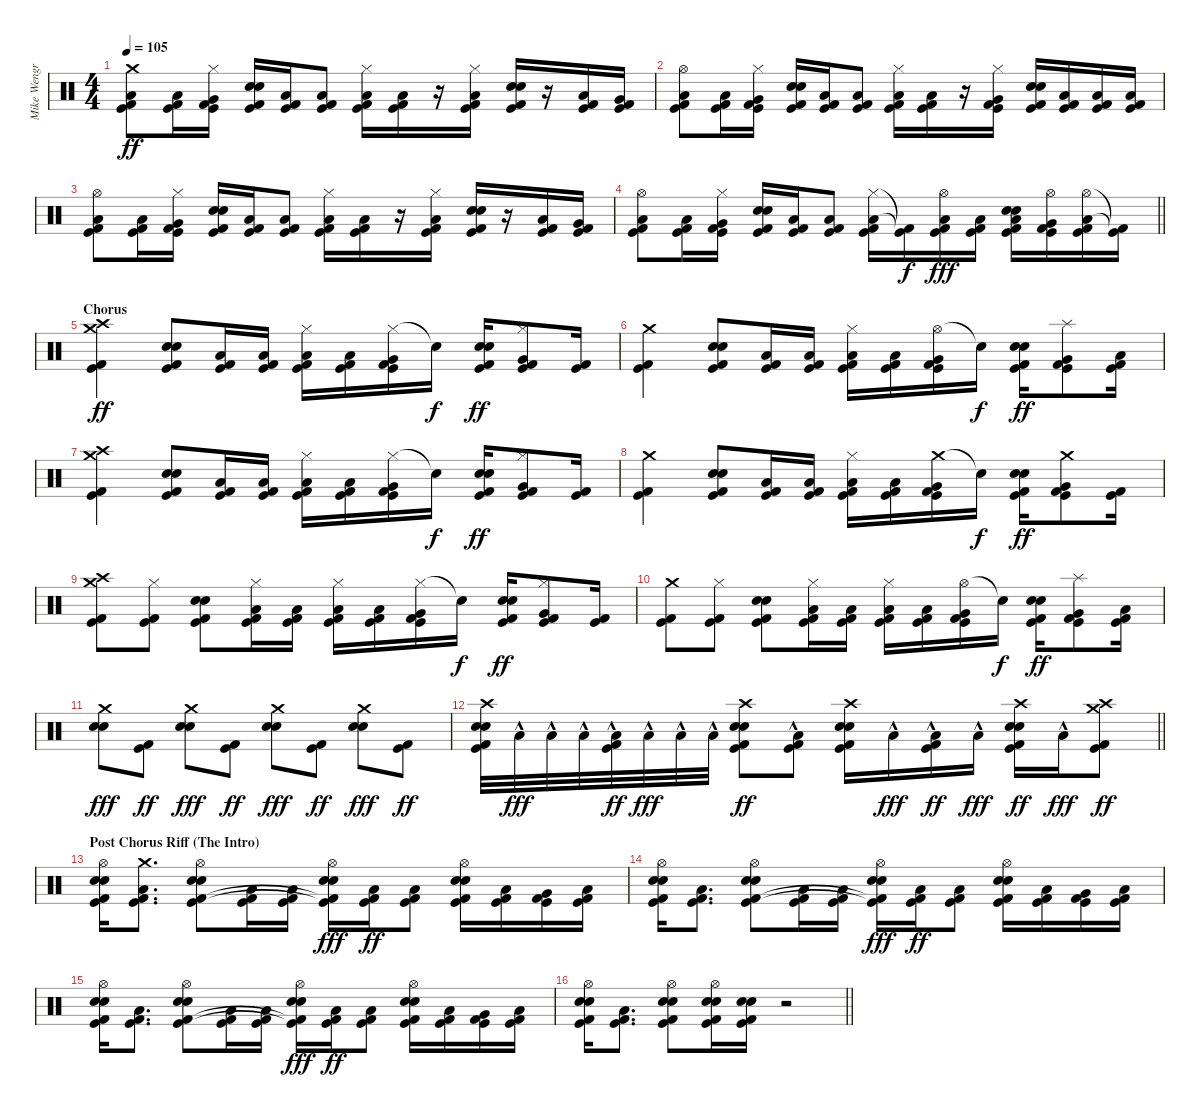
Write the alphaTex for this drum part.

\track ("Mike Wengren (Drums)" "Mike Wengr") {instrument percussion}
\staff {score}
\articulation defaults
\ts (4 4)
\tempo 105
\clef neutral
\ks c
("Crash medium (hit)" "Low Floor Tom (hit)" "Kick (hit) 2" "Kick (hit)").8{dy ff} ("Low Floor Tom (hit)" "Kick (hit) 2" "Kick (hit)").16 ("Hi-Hat (closed)" "Very Low Tom (hit)" "Kick (hit) 2" "Kick (hit)").16 ("Electric Snare (hit)" "Snare (hit) 2" "Kick (hit) 2" "Kick (hit)").16 ("Low Floor Tom (hit)" "Kick (hit) 2" "Kick (hit)").16 ("Low Floor Tom (hit)" "Kick (hit) 2" "Kick (hit)").8 ("Hi-Hat (closed)" "Low Floor Tom (hit)" "Kick (hit) 2" "Kick (hit)").16 ("Low Floor Tom (hit)" "Kick (hit) 2" "Kick (hit)").16 r.16 ("Hi-Hat (closed)" "Low Floor Tom (hit)" "Kick (hit) 2" "Kick (hit)").16 ("Electric Snare (hit)" "Snare (hit) 2" "Kick (hit) 2" "Kick (hit)").16 r.16 ("Low Floor Tom (hit)" "Kick (hit) 2" "Kick (hit)").16 ("Very Low Tom (hit)" "Kick (hit) 2" "Kick (hit)").16 |
("Hi-Hat (open)" "Low Floor Tom (hit)" "Kick (hit) 2" "Kick (hit)").8 ("Low Floor Tom (hit)" "Kick (hit) 2" "Kick (hit)").16 ("Hi-Hat (closed)" "Very Low Tom (hit)" "Kick (hit) 2" "Kick (hit)").16 ("Electric Snare (hit)" "Snare (hit) 2" "Kick (hit) 2" "Kick (hit)").16 ("Low Floor Tom (hit)" "Kick (hit) 2" "Kick (hit)").16 ("Low Floor Tom (hit)" "Kick (hit) 2" "Kick (hit)").8 ("Hi-Hat (closed)" "Low Floor Tom (hit)" "Kick (hit) 2" "Kick (hit)").16 ("Low Floor Tom (hit)" "Kick (hit) 2" "Kick (hit)").16 r.16 ("Hi-Hat (closed)" "Very Low Tom (hit)" "Kick (hit) 2" "Kick (hit)").16 ("Electric Snare (hit)" "Snare (hit) 2" "Kick (hit) 2" "Kick (hit)").16 ("Low Floor Tom (hit)" "Kick (hit) 2" "Kick (hit)").16 ("Low Floor Tom (hit)" "Kick (hit) 2" "Kick (hit)").16 ("Low Floor Tom (hit)" "Kick (hit) 2" "Kick (hit)").16 |
("Hi-Hat (open)" "Low Floor Tom (hit)" "Kick (hit) 2" "Kick (hit)").8 ("Low Floor Tom (hit)" "Kick (hit) 2" "Kick (hit)").16 ("Hi-Hat (closed)" "Very Low Tom (hit)" "Kick (hit) 2" "Kick (hit)").16 ("Electric Snare (hit)" "Snare (hit) 2" "Kick (hit) 2" "Kick (hit)").16 ("Low Floor Tom (hit)" "Kick (hit) 2" "Kick (hit)").16 ("Low Floor Tom (hit)" "Kick (hit) 2" "Kick (hit)").8 ("Hi-Hat (closed)" "Low Floor Tom (hit)" "Kick (hit) 2" "Kick (hit)").16 ("Low Floor Tom (hit)" "Kick (hit) 2" "Kick (hit)").16 r.16 ("Hi-Hat (closed)" "Low Floor Tom (hit)" "Kick (hit) 2" "Kick (hit)").16 ("Electric Snare (hit)" "Snare (hit) 2" "Kick (hit) 2" "Kick (hit)").16 r.16 ("Low Floor Tom (hit)" "Kick (hit) 2" "Kick (hit)").16 ("Very Low Tom (hit)" "Kick (hit) 2" "Kick (hit)").16 |
\barLineRight lightlight
("Hi-Hat (open)" "Low Floor Tom (hit)" "Kick (hit) 2" "Kick (hit)").8 ("Low Floor Tom (hit)" "Kick (hit) 2" "Kick (hit)").16 ("Hi-Hat (closed)" "Very Low Tom (hit)" "Kick (hit) 2" "Kick (hit)").16 ("Electric Snare (hit)" "Snare (hit) 2" "Kick (hit) 2" "Kick (hit)").16 ("Low Floor Tom (hit)" "Kick (hit) 2" "Kick (hit)").16 ("Low Floor Tom (hit)" "Kick (hit) 2" "Kick (hit)").8 ("Hi-Hat (closed)" "Low Floor Tom (hit)" "Kick (hit) 2" "Kick (hit)").16 ("Kick (hit) 2"{t} "Kick (hit)"{t}).16{dy f} ("Hi-Hat (open)" "Low Floor Tom (hit)" "Kick (hit) 2" "Kick (hit)").16{dy fff} ("Low Floor Tom (hit)" "Kick (hit) 2" "Kick (hit)").16 ("Low Tom (hit)" "Electric Snare (hit)" "Snare (hit) 2" "Kick (hit) 2" "Kick (hit)").16 ("Hi-Hat (open)" "Very Low Tom (hit)" "Kick (hit) 2" "Kick (hit)").16 ("Hi-Hat (open)" "Low Floor Tom (hit)" "Kick (hit) 2" "Kick (hit)").16 ("Kick (hit) 2"{t} "Kick (hit)"{t}).16 |
\section ("" "Chorus")
("Crash medium (hit)" "Crash high (hit)" "Kick (hit) 2" "Kick (hit)").4{dy ff} ("Electric Snare (hit)" "Snare (hit) 2" "Kick (hit) 2" "Kick (hit)").8 ("Low Floor Tom (hit)" "Kick (hit) 2" "Kick (hit)").16 ("Low Floor Tom (hit)" "Kick (hit) 2" "Kick (hit)").16 ("Hi-Hat (closed)" "Low Floor Tom (hit)" "Kick (hit) 2" "Kick (hit)").16 ("Low Floor Tom (hit)" "Kick (hit) 2" "Kick (hit)").16 ("Hi-Hat (closed)" "Very Low Tom (hit)" "Kick (hit) 2" "Kick (hit)").16 "Snare (hit)"{t}.16{dy f} ("Electric Snare (hit)" "Snare (hit) 2" "Kick (hit) 2" "Kick (hit)").16{dy ff} ("Hi-Hat (closed)" "Very Low Tom (hit)" "Kick (hit) 2" "Kick (hit)").8 ("Kick (hit) 2" "Kick (hit)").16 |
("Crash medium (hit)" "Kick (hit) 2" "Kick (hit)").4 ("Electric Snare (hit)" "Snare (hit) 2" "Kick (hit) 2" "Kick (hit)").8 ("Low Floor Tom (hit)" "Kick (hit) 2" "Kick (hit)").16 ("Low Floor Tom (hit)" "Kick (hit) 2" "Kick (hit)").16 ("Hi-Hat (closed)" "Low Floor Tom (hit)" "Kick (hit) 2" "Kick (hit)").16 ("Low Floor Tom (hit)" "Kick (hit) 2" "Kick (hit)").16 ("Hi-Hat (open)" "Very Low Tom (hit)" "Kick (hit) 2" "Kick (hit)").16 "Snare (hit)"{t}.16{dy f} ("Electric Snare (hit)" "Snare (hit) 2" "Kick (hit) 2" "Kick (hit)").16{dy ff} ("Splash (hit)" "Very Low Tom (hit)" "Kick (hit) 2" "Kick (hit)").8 ("Low Floor Tom (hit)" "Kick (hit) 2" "Kick (hit)").16 |
("Crash medium (hit)" "Crash high (hit)" "Kick (hit) 2" "Kick (hit)").4 ("Electric Snare (hit)" "Snare (hit) 2" "Kick (hit) 2" "Kick (hit)").8 ("Low Floor Tom (hit)" "Kick (hit) 2" "Kick (hit)").16 ("Low Floor Tom (hit)" "Kick (hit) 2" "Kick (hit)").16 ("Hi-Hat (closed)" "Low Floor Tom (hit)" "Kick (hit) 2" "Kick (hit)").16 ("Low Floor Tom (hit)" "Kick (hit) 2" "Kick (hit)").16 ("Hi-Hat (closed)" "Very Low Tom (hit)" "Kick (hit) 2" "Kick (hit)").16 "Snare (hit)"{t}.16{dy f} ("Electric Snare (hit)" "Snare (hit) 2" "Kick (hit) 2" "Kick (hit)").16{dy ff} ("Hi-Hat (closed)" "Very Low Tom (hit)" "Kick (hit) 2" "Kick (hit)").8 ("Kick (hit) 2" "Kick (hit)").16 |
("Crash medium (hit)" "Kick (hit) 2" "Kick (hit)").4 ("Electric Snare (hit)" "Snare (hit) 2" "Kick (hit) 2" "Kick (hit)").8 ("Low Floor Tom (hit)" "Kick (hit) 2" "Kick (hit)").16 ("Low Floor Tom (hit)" "Kick (hit) 2" "Kick (hit)").16 ("Hi-Hat (closed)" "Low Floor Tom (hit)" "Kick (hit) 2" "Kick (hit)").16 ("Low Floor Tom (hit)" "Kick (hit) 2" "Kick (hit)").16 ("Crash medium (hit)" "Very Low Tom (hit)" "Kick (hit) 2" "Kick (hit)").16 "Snare (hit)"{t}.16{dy f} ("Electric Snare (hit)" "Snare (hit) 2" "Kick (hit) 2" "Kick (hit)").16{dy ff} ("Crash medium (hit)" "Very Low Tom (hit)" "Kick (hit) 2" "Kick (hit)").8 ("Kick (hit) 2" "Kick (hit)").16 |
("Crash medium (hit)" "Crash high (hit)" "Kick (hit) 2" "Kick (hit)").8 ("Hi-Hat (closed)" "Kick (hit) 2" "Kick (hit)").8 ("Electric Snare (hit)" "Snare (hit) 2" "Kick (hit) 2" "Kick (hit)").8 ("Hi-Hat (closed)" "Low Floor Tom (hit)" "Kick (hit) 2" "Kick (hit)").16 ("Low Floor Tom (hit)" "Kick (hit) 2" "Kick (hit)").16 ("Hi-Hat (closed)" "Low Floor Tom (hit)" "Kick (hit) 2" "Kick (hit)").16 ("Low Floor Tom (hit)" "Kick (hit) 2" "Kick (hit)").16 ("Hi-Hat (closed)" "Very Low Tom (hit)" "Kick (hit) 2" "Kick (hit)").16 "Snare (hit)"{t}.16{dy f} ("Electric Snare (hit)" "Snare (hit) 2" "Kick (hit) 2" "Kick (hit)").16{dy ff} ("Hi-Hat (closed)" "Very Low Tom (hit)" "Kick (hit) 2" "Kick (hit)").8 ("Kick (hit) 2" "Kick (hit)").16 |
("Crash medium (hit)" "Kick (hit) 2" "Kick (hit)").8 ("Hi-Hat (closed)" "Kick (hit) 2" "Kick (hit)").8 ("Electric Snare (hit)" "Snare (hit) 2" "Kick (hit) 2" "Kick (hit)").8 ("Hi-Hat (closed)" "Low Floor Tom (hit)" "Kick (hit) 2" "Kick (hit)").16 ("Low Floor Tom (hit)" "Kick (hit) 2" "Kick (hit)").16 ("Hi-Hat (closed)" "Low Floor Tom (hit)" "Kick (hit) 2" "Kick (hit)").16 ("Low Floor Tom (hit)" "Kick (hit) 2" "Kick (hit)").16 ("Hi-Hat (open)" "Very Low Tom (hit)" "Kick (hit) 2" "Kick (hit)").16 "Snare (hit)"{t}.16{dy f} ("Electric Snare (hit)" "Snare (hit) 2" "Kick (hit) 2" "Kick (hit)").16{dy ff} ("Splash (hit)" "Very Low Tom (hit)" "Kick (hit) 2" "Kick (hit)").8 ("Low Floor Tom (hit)" "Kick (hit) 2" "Kick (hit)").16 |
("Crash medium (hit)" "Electric Snare (hit)" "Snare (hit) 2").8{dy fff} ("Kick (hit) 2" "Kick (hit)").8{dy ff} ("Crash medium (hit)" "Electric Snare (hit)" "Snare (hit) 2").8{dy fff} ("Kick (hit) 2" "Kick (hit)").8{dy ff} ("Crash medium (hit)" "Electric Snare (hit)" "Snare (hit) 2").8{dy fff} ("Kick (hit) 2" "Kick (hit)").8{dy ff} ("Crash medium (hit)" "Electric Snare (hit)" "Snare (hit) 2").8{dy fff} ("Kick (hit) 2" "Kick (hit)").8{dy ff} |
\barLineRight lightlight
("Crash high (hit)" "Electric Snare (hit)" "Snare (hit) 2" "Kick (hit) 2" "Kick (hit)").32 "Low Floor Tom (hit)"{hac}.32{dy fff} "Low Floor Tom (hit)"{hac}.32 "Low Floor Tom (hit)"{hac}.32 ("Low Floor Tom (hit)"{hac} "Kick (hit) 2" "Kick (hit)").32{dy ff} "Low Floor Tom (hit)"{hac}.32{dy fff} "Low Floor Tom (hit)"{hac}.32 "Low Floor Tom (hit)"{hac}.32 ("Crash high (hit)" "Electric Snare (hit)" "Snare (hit) 2" "Kick (hit) 2" "Kick (hit)").8{dy ff} ("Low Floor Tom (hit)"{hac} "Kick (hit) 2" "Kick (hit)").8 ("Crash high (hit)" "Electric Snare (hit)" "Snare (hit) 2" "Kick (hit) 2" "Kick (hit)").16 "Low Floor Tom (hit)"{hac}.16{dy fff} ("Low Floor Tom (hit)"{hac} "Kick (hit) 2" "Kick (hit)").16{dy ff} "Low Floor Tom (hit)"{hac}.16{dy fff} ("Crash high (hit)" "Electric Snare (hit)" "Snare (hit) 2" "Kick (hit) 2" "Kick (hit)").16{dy ff} "Low Floor Tom (hit)"{hac}.16{dy fff} ("Crash medium (hit)" "Crash high (hit)" "Kick (hit) 2" "Kick (hit)").8{dy ff} |
\section ("" "Post Chorus Riff (The Intro)")
("Hi-Hat (open)" "Electric Snare (hit)" "Snare (hit) 2" "Kick (hit) 2" "Kick (hit)").16 ("Crash medium (hit)" "Low Floor Tom (hit)" "Kick (hit) 2" "Kick (hit)").8{d} ("Hi-Hat (open)" "Electric Snare (hit)" "Snare (hit) 2" "Kick (hit) 2" "Kick (hit)").8 ("Low Floor Tom (hit)" "Kick (hit) 2" "Kick (hit)").16 ("Low Floor Tom (hit)" "Kick (hit) 2" "Kick (hit)").16 ("Hi-Hat (open)" "Electric Snare (hit)" "Snare (hit) 2" "Kick (hit) 2"{t} "Kick (hit)"{t}).16{dy fff} ("Low Floor Tom (hit)" "Kick (hit) 2" "Kick (hit)").16{dy ff} ("Low Floor Tom (hit)" "Kick (hit) 2" "Kick (hit)").8 ("Hi-Hat (open)" "Electric Snare (hit)" "Snare (hit) 2" "Kick (hit) 2" "Kick (hit)").16 ("Low Floor Tom (hit)" "Kick (hit) 2" "Kick (hit)").16 ("Very Low Tom (hit)" "Kick (hit) 2" "Kick (hit)").16 ("Low Tom (hit)" "Kick (hit) 2" "Kick (hit)").16 |
("Hi-Hat (open)" "Electric Snare (hit)" "Snare (hit) 2" "Kick (hit) 2" "Kick (hit)").16 ("Low Floor Tom (hit)" "Kick (hit) 2" "Kick (hit)").8{d} ("Hi-Hat (open)" "Electric Snare (hit)" "Snare (hit) 2" "Kick (hit) 2" "Kick (hit)").8 ("Low Floor Tom (hit)" "Kick (hit) 2" "Kick (hit)").16 ("Low Floor Tom (hit)" "Kick (hit) 2" "Kick (hit)").16 ("Hi-Hat (open)" "Electric Snare (hit)" "Snare (hit) 2" "Kick (hit) 2"{t} "Kick (hit)"{t}).16{dy fff} ("Low Floor Tom (hit)" "Kick (hit) 2" "Kick (hit)").16{dy ff} ("Low Floor Tom (hit)" "Kick (hit) 2" "Kick (hit)").8 ("Hi-Hat (open)" "Electric Snare (hit)" "Snare (hit) 2" "Kick (hit) 2" "Kick (hit)").16 ("Low Floor Tom (hit)" "Kick (hit) 2" "Kick (hit)").16 ("Very Low Tom (hit)" "Kick (hit) 2" "Kick (hit)").16 ("Low Tom (hit)" "Kick (hit) 2" "Kick (hit)").16 |
("Hi-Hat (open)" "Electric Snare (hit)" "Snare (hit) 2" "Kick (hit) 2" "Kick (hit)").16 ("Low Floor Tom (hit)" "Kick (hit) 2" "Kick (hit)").8{d} ("Hi-Hat (open)" "Electric Snare (hit)" "Snare (hit) 2" "Kick (hit) 2" "Kick (hit)").8 ("Low Floor Tom (hit)" "Kick (hit) 2" "Kick (hit)").16 ("Low Floor Tom (hit)" "Kick (hit) 2" "Kick (hit)").16 ("Hi-Hat (open)" "Electric Snare (hit)" "Snare (hit) 2" "Kick (hit) 2"{t} "Kick (hit)"{t}).16{dy fff} ("Low Floor Tom (hit)" "Kick (hit) 2" "Kick (hit)").16{dy ff} ("Low Floor Tom (hit)" "Kick (hit) 2" "Kick (hit)").8 ("Hi-Hat (open)" "Electric Snare (hit)" "Snare (hit) 2" "Kick (hit) 2" "Kick (hit)").16 ("Low Floor Tom (hit)" "Kick (hit) 2" "Kick (hit)").16 ("Very Low Tom (hit)" "Kick (hit) 2" "Kick (hit)").16 ("Low Tom (hit)" "Kick (hit) 2" "Kick (hit)").16 |
\barLineRight lightlight
("Hi-Hat (open)" "Electric Snare (hit)" "Snare (hit) 2" "Kick (hit) 2" "Kick (hit)").16 ("Low Floor Tom (hit)" "Kick (hit) 2" "Kick (hit)").8{d} ("Hi-Hat (open)" "Electric Snare (hit)" "Snare (hit) 2" "Kick (hit) 2" "Kick (hit)").8 ("Hi-Hat (open)" "Electric Snare (hit)" "Snare (hit) 2" "Kick (hit) 2" "Kick (hit)").16 ("Electric Snare (hit)" "Snare (hit) 2" "Kick (hit) 2" "Kick (hit)").16 r.2
